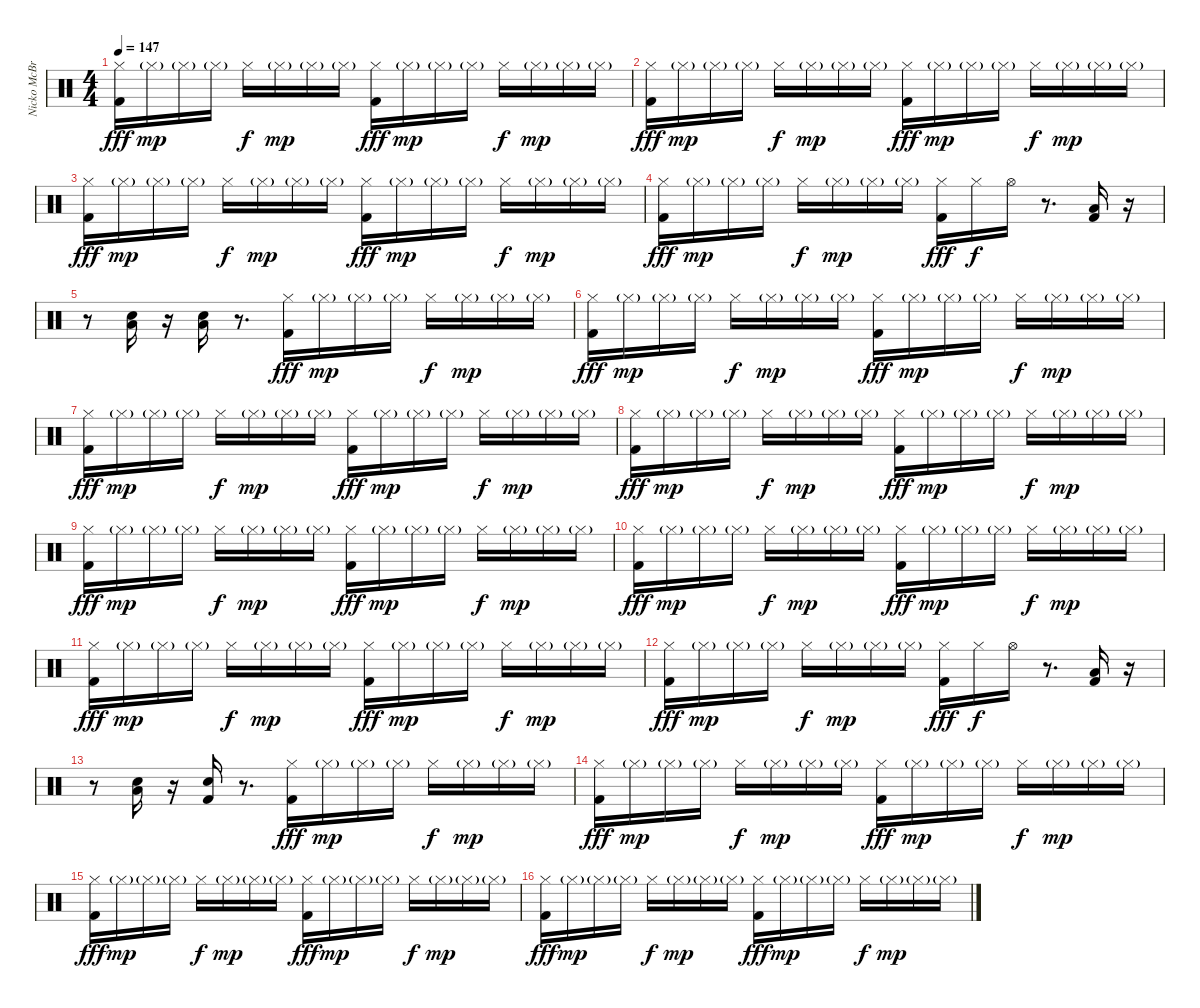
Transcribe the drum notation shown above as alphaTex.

\track ("Nicko McBrain" "Nicko McBr") {instrument percussion}
\staff {score}
\articulation defaults
\ts (4 4)
\tempo 147
\clef neutral
\ks c
("Hi-Hat (closed)" "Kick (hit) 2").16{dy fff} "Hi-Hat (closed)"{g}.16{dy mp} "Hi-Hat (closed)"{g}.16 "Hi-Hat (closed)"{g}.16 "Hi-Hat (closed)".16{dy f} "Hi-Hat (closed)"{g}.16{dy mp} "Hi-Hat (closed)"{g}.16 "Hi-Hat (closed)"{g}.16 ("Hi-Hat (closed)" "Kick (hit) 2").16{dy fff} "Hi-Hat (closed)"{g}.16{dy mp} "Hi-Hat (closed)"{g}.16 "Hi-Hat (closed)"{g}.16 "Hi-Hat (closed)".16{dy f} "Hi-Hat (closed)"{g}.16{dy mp} "Hi-Hat (closed)"{g}.16 "Hi-Hat (closed)"{g}.16 |
("Hi-Hat (closed)" "Kick (hit) 2").16{dy fff} "Hi-Hat (closed)"{g}.16{dy mp} "Hi-Hat (closed)"{g}.16 "Hi-Hat (closed)"{g}.16 "Hi-Hat (closed)".16{dy f} "Hi-Hat (closed)"{g}.16{dy mp} "Hi-Hat (closed)"{g}.16 "Hi-Hat (closed)"{g}.16 ("Hi-Hat (closed)" "Kick (hit) 2").16{dy fff} "Hi-Hat (closed)"{g}.16{dy mp} "Hi-Hat (closed)"{g}.16 "Hi-Hat (closed)"{g}.16 "Hi-Hat (closed)".16{dy f} "Hi-Hat (closed)"{g}.16{dy mp} "Hi-Hat (closed)"{g}.16 "Hi-Hat (closed)"{g}.16 |
("Hi-Hat (closed)" "Kick (hit) 2").16{dy fff} "Hi-Hat (closed)"{g}.16{dy mp} "Hi-Hat (closed)"{g}.16 "Hi-Hat (closed)"{g}.16 "Hi-Hat (closed)".16{dy f} "Hi-Hat (closed)"{g}.16{dy mp} "Hi-Hat (closed)"{g}.16 "Hi-Hat (closed)"{g}.16 ("Hi-Hat (closed)" "Kick (hit) 2").16{dy fff} "Hi-Hat (closed)"{g}.16{dy mp} "Hi-Hat (closed)"{g}.16 "Hi-Hat (closed)"{g}.16 "Hi-Hat (closed)".16{dy f} "Hi-Hat (closed)"{g}.16{dy mp} "Hi-Hat (closed)"{g}.16 "Hi-Hat (closed)"{g}.16 |
("Hi-Hat (closed)" "Kick (hit) 2").16{dy fff} "Hi-Hat (closed)"{g}.16{dy mp} "Hi-Hat (closed)"{g}.16 "Hi-Hat (closed)"{g}.16 "Hi-Hat (closed)".16{dy f} "Hi-Hat (closed)"{g}.16{dy mp} "Hi-Hat (closed)"{g}.16 "Hi-Hat (closed)"{g}.16 ("Hi-Hat (closed)" "Kick (hit) 2").16{dy fff} "Hi-Hat (closed)".16{dy f} "Hi-Hat (open)".16 r.8{d} ("Low Floor Tom (hit)" "Kick (hit) 2").16 r.16 |
r.8 ("Low Floor Tom (hit)" "Snare (hit) 2").16 r.16 ("Low Floor Tom (hit)" "Snare (hit) 2").16 r.8{d} ("Hi-Hat (closed)" "Kick (hit) 2").16{dy fff} "Hi-Hat (closed)"{g}.16{dy mp} "Hi-Hat (closed)"{g}.16 "Hi-Hat (closed)"{g}.16 "Hi-Hat (closed)".16{dy f} "Hi-Hat (closed)"{g}.16{dy mp} "Hi-Hat (closed)"{g}.16 "Hi-Hat (closed)"{g}.16 |
("Hi-Hat (closed)" "Kick (hit) 2").16{dy fff} "Hi-Hat (closed)"{g}.16{dy mp} "Hi-Hat (closed)"{g}.16 "Hi-Hat (closed)"{g}.16 "Hi-Hat (closed)".16{dy f} "Hi-Hat (closed)"{g}.16{dy mp} "Hi-Hat (closed)"{g}.16 "Hi-Hat (closed)"{g}.16 ("Hi-Hat (closed)" "Kick (hit) 2").16{dy fff} "Hi-Hat (closed)"{g}.16{dy mp} "Hi-Hat (closed)"{g}.16 "Hi-Hat (closed)"{g}.16 "Hi-Hat (closed)".16{dy f} "Hi-Hat (closed)"{g}.16{dy mp} "Hi-Hat (closed)"{g}.16 "Hi-Hat (closed)"{g}.16 |
("Hi-Hat (closed)" "Kick (hit) 2").16{dy fff} "Hi-Hat (closed)"{g}.16{dy mp} "Hi-Hat (closed)"{g}.16 "Hi-Hat (closed)"{g}.16 "Hi-Hat (closed)".16{dy f} "Hi-Hat (closed)"{g}.16{dy mp} "Hi-Hat (closed)"{g}.16 "Hi-Hat (closed)"{g}.16 ("Hi-Hat (closed)" "Kick (hit) 2").16{dy fff} "Hi-Hat (closed)"{g}.16{dy mp} "Hi-Hat (closed)"{g}.16 "Hi-Hat (closed)"{g}.16 "Hi-Hat (closed)".16{dy f} "Hi-Hat (closed)"{g}.16{dy mp} "Hi-Hat (closed)"{g}.16 "Hi-Hat (closed)"{g}.16 |
("Hi-Hat (closed)" "Kick (hit) 2").16{dy fff} "Hi-Hat (closed)"{g}.16{dy mp} "Hi-Hat (closed)"{g}.16 "Hi-Hat (closed)"{g}.16 "Hi-Hat (closed)".16{dy f} "Hi-Hat (closed)"{g}.16{dy mp} "Hi-Hat (closed)"{g}.16 "Hi-Hat (closed)"{g}.16 ("Hi-Hat (closed)" "Kick (hit) 2").16{dy fff} "Hi-Hat (closed)"{g}.16{dy mp} "Hi-Hat (closed)"{g}.16 "Hi-Hat (closed)"{g}.16 "Hi-Hat (closed)".16{dy f} "Hi-Hat (closed)"{g}.16{dy mp} "Hi-Hat (closed)"{g}.16 "Hi-Hat (closed)"{g}.16 |
("Hi-Hat (closed)" "Kick (hit) 2").16{dy fff} "Hi-Hat (closed)"{g}.16{dy mp} "Hi-Hat (closed)"{g}.16 "Hi-Hat (closed)"{g}.16 "Hi-Hat (closed)".16{dy f} "Hi-Hat (closed)"{g}.16{dy mp} "Hi-Hat (closed)"{g}.16 "Hi-Hat (closed)"{g}.16 ("Hi-Hat (closed)" "Kick (hit) 2").16{dy fff} "Hi-Hat (closed)"{g}.16{dy mp} "Hi-Hat (closed)"{g}.16 "Hi-Hat (closed)"{g}.16 "Hi-Hat (closed)".16{dy f} "Hi-Hat (closed)"{g}.16{dy mp} "Hi-Hat (closed)"{g}.16 "Hi-Hat (closed)"{g}.16 |
("Hi-Hat (closed)" "Kick (hit) 2").16{dy fff} "Hi-Hat (closed)"{g}.16{dy mp} "Hi-Hat (closed)"{g}.16 "Hi-Hat (closed)"{g}.16 "Hi-Hat (closed)".16{dy f} "Hi-Hat (closed)"{g}.16{dy mp} "Hi-Hat (closed)"{g}.16 "Hi-Hat (closed)"{g}.16 ("Hi-Hat (closed)" "Kick (hit) 2").16{dy fff} "Hi-Hat (closed)"{g}.16{dy mp} "Hi-Hat (closed)"{g}.16 "Hi-Hat (closed)"{g}.16 "Hi-Hat (closed)".16{dy f} "Hi-Hat (closed)"{g}.16{dy mp} "Hi-Hat (closed)"{g}.16 "Hi-Hat (closed)"{g}.16 |
("Hi-Hat (closed)" "Kick (hit) 2").16{dy fff} "Hi-Hat (closed)"{g}.16{dy mp} "Hi-Hat (closed)"{g}.16 "Hi-Hat (closed)"{g}.16 "Hi-Hat (closed)".16{dy f} "Hi-Hat (closed)"{g}.16{dy mp} "Hi-Hat (closed)"{g}.16 "Hi-Hat (closed)"{g}.16 ("Hi-Hat (closed)" "Kick (hit) 2").16{dy fff} "Hi-Hat (closed)"{g}.16{dy mp} "Hi-Hat (closed)"{g}.16 "Hi-Hat (closed)"{g}.16 "Hi-Hat (closed)".16{dy f} "Hi-Hat (closed)"{g}.16{dy mp} "Hi-Hat (closed)"{g}.16 "Hi-Hat (closed)"{g}.16 |
("Hi-Hat (closed)" "Kick (hit) 2").16{dy fff} "Hi-Hat (closed)"{g}.16{dy mp} "Hi-Hat (closed)"{g}.16 "Hi-Hat (closed)"{g}.16 "Hi-Hat (closed)".16{dy f} "Hi-Hat (closed)"{g}.16{dy mp} "Hi-Hat (closed)"{g}.16 "Hi-Hat (closed)"{g}.16 ("Hi-Hat (closed)" "Kick (hit) 2").16{dy fff} "Hi-Hat (closed)".16{dy f} "Hi-Hat (open)".16 r.8{d} ("Low Floor Tom (hit)" "Kick (hit) 2").16 r.16 |
r.8 ("Low Floor Tom (hit)" "Snare (hit) 2").16 r.16 ("Snare (hit) 2" "Kick (hit) 2").16 r.8{d} ("Hi-Hat (closed)" "Kick (hit) 2").16{dy fff} "Hi-Hat (closed)"{g}.16{dy mp} "Hi-Hat (closed)"{g}.16 "Hi-Hat (closed)"{g}.16 "Hi-Hat (closed)".16{dy f} "Hi-Hat (closed)"{g}.16{dy mp} "Hi-Hat (closed)"{g}.16 "Hi-Hat (closed)"{g}.16 |
("Hi-Hat (closed)" "Kick (hit) 2").16{dy fff} "Hi-Hat (closed)"{g}.16{dy mp} "Hi-Hat (closed)"{g}.16 "Hi-Hat (closed)"{g}.16 "Hi-Hat (closed)".16{dy f} "Hi-Hat (closed)"{g}.16{dy mp} "Hi-Hat (closed)"{g}.16 "Hi-Hat (closed)"{g}.16 ("Hi-Hat (closed)" "Kick (hit) 2").16{dy fff} "Hi-Hat (closed)"{g}.16{dy mp} "Hi-Hat (closed)"{g}.16 "Hi-Hat (closed)"{g}.16 "Hi-Hat (closed)".16{dy f} "Hi-Hat (closed)"{g}.16{dy mp} "Hi-Hat (closed)"{g}.16 "Hi-Hat (closed)"{g}.16 |
("Hi-Hat (closed)" "Kick (hit) 2").16{dy fff} "Hi-Hat (closed)"{g}.16{dy mp} "Hi-Hat (closed)"{g}.16 "Hi-Hat (closed)"{g}.16 "Hi-Hat (closed)".16{dy f} "Hi-Hat (closed)"{g}.16{dy mp} "Hi-Hat (closed)"{g}.16 "Hi-Hat (closed)"{g}.16 ("Hi-Hat (closed)" "Kick (hit) 2").16{dy fff} "Hi-Hat (closed)"{g}.16{dy mp} "Hi-Hat (closed)"{g}.16 "Hi-Hat (closed)"{g}.16 "Hi-Hat (closed)".16{dy f} "Hi-Hat (closed)"{g}.16{dy mp} "Hi-Hat (closed)"{g}.16 "Hi-Hat (closed)"{g}.16 |
("Hi-Hat (closed)" "Kick (hit) 2").16{dy fff} "Hi-Hat (closed)"{g}.16{dy mp} "Hi-Hat (closed)"{g}.16 "Hi-Hat (closed)"{g}.16 "Hi-Hat (closed)".16{dy f} "Hi-Hat (closed)"{g}.16{dy mp} "Hi-Hat (closed)"{g}.16 "Hi-Hat (closed)"{g}.16 ("Hi-Hat (closed)" "Kick (hit) 2").16{dy fff} "Hi-Hat (closed)"{g}.16{dy mp} "Hi-Hat (closed)"{g}.16 "Hi-Hat (closed)"{g}.16 "Hi-Hat (closed)".16{dy f} "Hi-Hat (closed)"{g}.16{dy mp} "Hi-Hat (closed)"{g}.16 "Hi-Hat (closed)"{g}.16
